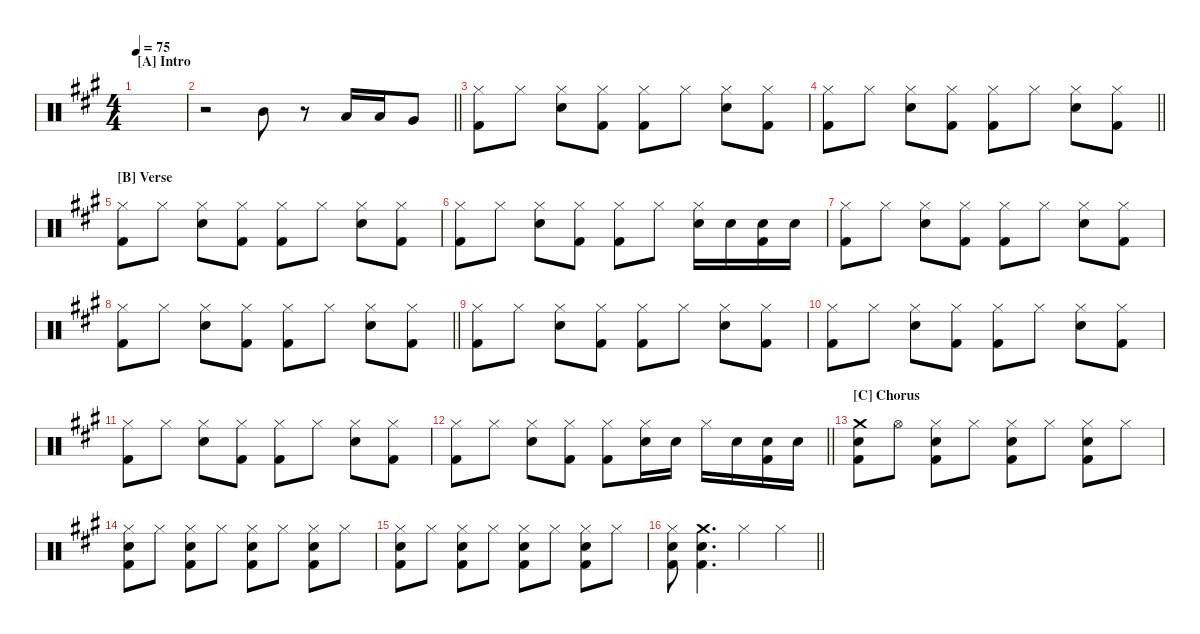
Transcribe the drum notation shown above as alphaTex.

\hideDynamics
\bracketExtendMode nobrackets
\singleTrackTrackNamePolicy hidden
\multiTrackTrackNamePolicy hidden
\otherSystemsTrackNameOrientation horizontal
\track ("Drumkit" "Drums") {instrument percussion}
\staff {score}
\articulation defaults
\ts (4 4)
\beaming (8 2 2 2 2)
\section ("A" "Intro")
\tempo 75
\clef neutral
\scale
0.472222
\ks a
|
\scale
0.263889
\barLineRight lightlight
r.2{beam Down} "Mid Tom (hit)"{acc forcenatural}.8{beam Down} r.8{beam Down} "Low Tom (hit)"{acc forcenatural}.16{beam Up} "Low Tom (hit)"{acc forcenatural}.16{beam Up} "Very Low Tom (hit)"{acc forcenatural}.8{beam Up} |
\scale
0.263889 ("Hi-Hat (closed)"{acc forcenatural} "Kick (hit) 2"{acc forcenatural}).8{dy mf beam Down} "Hi-Hat (closed)"{acc forcenatural}.8{beam Down} ("Hi-Hat (closed)"{acc forcenatural} "Snare (hit) 2"{acc forcenatural}).8{beam Down} ("Hi-Hat (closed)"{acc forcenatural} "Kick (hit) 2"{acc forcenatural}).8{beam Down} ("Hi-Hat (closed)"{acc forcenatural} "Kick (hit) 2"{acc forcenatural}).8{beam Down} "Hi-Hat (closed)"{acc forcenatural}.8{beam Down} ("Hi-Hat (closed)"{acc forcenatural} "Snare (hit) 2"{acc forcenatural}).8{beam Down} ("Hi-Hat (closed)"{acc forcenatural} "Kick (hit) 2"{acc forcenatural}).8{beam Down} |
\scale
0.311475
\barLineRight lightlight
("Hi-Hat (closed)"{acc forcenatural} "Kick (hit) 2"{acc forcenatural}).8{beam Down} "Hi-Hat (closed)"{acc forcenatural}.8{beam Down} ("Hi-Hat (closed)"{acc forcenatural} "Snare (hit) 2"{acc forcenatural}).8{beam Down} ("Hi-Hat (closed)"{acc forcenatural} "Kick (hit) 2"{acc forcenatural}).8{beam Down} ("Hi-Hat (closed)"{acc forcenatural} "Kick (hit) 2"{acc forcenatural}).8{beam Down} "Hi-Hat (closed)"{acc forcenatural}.8{beam Down} ("Hi-Hat (closed)"{acc forcenatural} "Snare (hit) 2"{acc forcenatural}).8{beam Down} ("Hi-Hat (closed)"{acc forcenatural} "Kick (hit) 2"{acc forcenatural}).8{beam Down} |
\section ("B" "Verse")
\scale
0.377049 ("Hi-Hat (closed)"{acc forcenatural} "Kick (hit) 2"{acc forcenatural}).8{beam Down} "Hi-Hat (closed)"{acc forcenatural}.8{beam Down} ("Hi-Hat (closed)"{acc forcenatural} "Snare (hit) 2"{acc forcenatural}).8{beam Down} ("Hi-Hat (closed)"{acc forcenatural} "Kick (hit) 2"{acc forcenatural}).8{beam Down} ("Hi-Hat (closed)"{acc forcenatural} "Kick (hit) 2"{acc forcenatural}).8{beam Down} "Hi-Hat (closed)"{acc forcenatural}.8{beam Down} ("Hi-Hat (closed)"{acc forcenatural} "Snare (hit) 2"{acc forcenatural}).8{beam Down} ("Hi-Hat (closed)"{acc forcenatural} "Kick (hit) 2"{acc forcenatural}).8{beam Down} |
\scale
0.311475 ("Kick (hit) 2"{acc forcenatural} "Hi-Hat (closed)"{acc forcenatural}).8{beam Down} "Hi-Hat (closed)"{acc forcenatural}.8{beam Down} ("Snare (hit) 2"{acc forcenatural} "Hi-Hat (closed)"{acc forcenatural}).8{beam Down} ("Kick (hit) 2"{acc forcenatural} "Hi-Hat (closed)"{acc forcenatural}).8{beam Down} ("Kick (hit) 2"{acc forcenatural} "Hi-Hat (closed)"{acc forcenatural}).8{beam Down} "Hi-Hat (closed)"{acc forcenatural}.8{beam Down} ("Snare (hit) 2"{acc forcenatural} "Hi-Hat (closed)"{acc forcenatural}).16{beam Down} "Snare (hit) 2"{acc forcenatural}.16{beam Down} ("Snare (hit) 2"{acc forcenatural} "Kick (hit) 2"{acc forcenatural}).16{beam Down} "Snare (hit) 2"{acc forcenatural}.16{beam Down} |
\scale
0.333333 ("Hi-Hat (closed)"{acc forcenatural} "Kick (hit) 2"{acc forcenatural}).8{beam Down} "Hi-Hat (closed)"{acc forcenatural}.8{beam Down} ("Hi-Hat (closed)"{acc forcenatural} "Snare (hit) 2"{acc forcenatural}).8{beam Down} ("Hi-Hat (closed)"{acc forcenatural} "Kick (hit) 2"{acc forcenatural}).8{beam Down} ("Hi-Hat (closed)"{acc forcenatural} "Kick (hit) 2"{acc forcenatural}).8{beam Down} "Hi-Hat (closed)"{acc forcenatural}.8{beam Down} ("Hi-Hat (closed)"{acc forcenatural} "Snare (hit) 2"{acc forcenatural}).8{beam Down} ("Hi-Hat (closed)"{acc forcenatural} "Kick (hit) 2"{acc forcenatural}).8{beam Down} |
\scale
0.333333
\barLineRight lightlight
("Hi-Hat (closed)"{acc forcenatural} "Kick (hit) 2"{acc forcenatural}).8{beam Down} "Hi-Hat (closed)"{acc forcenatural}.8{beam Down} ("Hi-Hat (closed)"{acc forcenatural} "Snare (hit) 2"{acc forcenatural}).8{beam Down} ("Hi-Hat (closed)"{acc forcenatural} "Kick (hit) 2"{acc forcenatural}).8{beam Down} ("Hi-Hat (closed)"{acc forcenatural} "Kick (hit) 2"{acc forcenatural}).8{beam Down} "Hi-Hat (closed)"{acc forcenatural}.8{beam Down} ("Hi-Hat (closed)"{acc forcenatural} "Snare (hit) 2"{acc forcenatural}).8{beam Down} ("Hi-Hat (closed)"{acc forcenatural} "Kick (hit) 2"{acc forcenatural}).8{beam Down} |
\scale
0.333333 ("Hi-Hat (closed)"{acc forcenatural} "Kick (hit) 2"{acc forcenatural}).8{beam Down} "Hi-Hat (closed)"{acc forcenatural}.8{beam Down} ("Hi-Hat (closed)"{acc forcenatural} "Snare (hit) 2"{acc forcenatural}).8{beam Down} ("Hi-Hat (closed)"{acc forcenatural} "Kick (hit) 2"{acc forcenatural}).8{beam Down} ("Hi-Hat (closed)"{acc forcenatural} "Kick (hit) 2"{acc forcenatural}).8{beam Down} "Hi-Hat (closed)"{acc forcenatural}.8{beam Down} ("Hi-Hat (closed)"{acc forcenatural} "Snare (hit) 2"{acc forcenatural}).8{beam Down} ("Hi-Hat (closed)"{acc forcenatural} "Kick (hit) 2"{acc forcenatural}).8{beam Down} |
\scale
0.333333 ("Hi-Hat (closed)"{acc forcenatural} "Kick (hit) 2"{acc forcenatural}).8{beam Down} "Hi-Hat (closed)"{acc forcenatural}.8{beam Down} ("Hi-Hat (closed)"{acc forcenatural} "Snare (hit) 2"{acc forcenatural}).8{beam Down} ("Hi-Hat (closed)"{acc forcenatural} "Kick (hit) 2"{acc forcenatural}).8{beam Down} ("Hi-Hat (closed)"{acc forcenatural} "Kick (hit) 2"{acc forcenatural}).8{beam Down} "Hi-Hat (closed)"{acc forcenatural}.8{beam Down} ("Hi-Hat (closed)"{acc forcenatural} "Snare (hit) 2"{acc forcenatural}).8{beam Down} ("Hi-Hat (closed)"{acc forcenatural} "Kick (hit) 2"{acc forcenatural}).8{beam Down} |
\scale
0.333333 ("Hi-Hat (closed)"{acc forcenatural} "Kick (hit) 2"{acc forcenatural}).8{beam Down} "Hi-Hat (closed)"{acc forcenatural}.8{beam Down} ("Hi-Hat (closed)"{acc forcenatural} "Snare (hit) 2"{acc forcenatural}).8{beam Down} ("Hi-Hat (closed)"{acc forcenatural} "Kick (hit) 2"{acc forcenatural}).8{beam Down} ("Hi-Hat (closed)"{acc forcenatural} "Kick (hit) 2"{acc forcenatural}).8{beam Down} "Hi-Hat (closed)"{acc forcenatural}.8{beam Down} ("Hi-Hat (closed)"{acc forcenatural} "Snare (hit) 2"{acc forcenatural}).8{beam Down} ("Hi-Hat (closed)"{acc forcenatural} "Kick (hit) 2"{acc forcenatural}).8{beam Down} |
\scale
0.333333
\barLineRight lightlight
("Kick (hit) 2"{acc forcenatural} "Hi-Hat (closed)"{acc forcenatural}).8{beam Down} "Hi-Hat (closed)"{acc forcenatural}.8{beam Down} ("Snare (hit) 2"{acc forcenatural} "Hi-Hat (closed)"{acc forcenatural}).8{beam Down} ("Kick (hit) 2"{acc forcenatural} "Hi-Hat (closed)"{acc forcenatural}).8{beam Down} ("Kick (hit) 2"{acc forcenatural} "Hi-Hat (closed)"{acc forcenatural}).8{beam Down} ("Snare (hit) 2"{acc forcenatural} "Hi-Hat (closed)"{acc forcenatural}).16{beam Down} "Snare (hit) 2"{acc forcenatural}.16{beam Down} "Hi-Hat (closed)"{acc forcenatural}.16{beam Down} "Snare (hit) 2"{acc forcenatural}.16{beam Down} ("Snare (hit) 2"{acc forcenatural} "Kick (hit) 2"{acc forcenatural}).16{beam Down} "Snare (hit) 2"{acc forcenatural}.16{beam Down} |
\section ("C" "Chorus")
\scale
0.333333 ("Snare (hit) 2"{acc forcenatural} "Crash medium (hit)"{acc forcenatural} "Kick (hit) 2"{acc forcenatural}).8{beam Down} "Hi-Hat (open)"{acc forcenatural}.8{beam Down} ("Kick (hit) 2"{acc forcenatural} "Hi-Hat (closed)"{acc forcenatural} "Snare (hit) 2"{acc forcenatural}).8{beam Down} "Hi-Hat (closed)"{acc forcenatural}.8{beam Down} ("Kick (hit) 2"{acc forcenatural} "Snare (hit) 2"{acc forcenatural} "Hi-Hat (closed)"{acc forcenatural}).8{beam Down} "Hi-Hat (closed)"{acc forcenatural}.8{beam Down} ("Kick (hit) 2"{acc forcenatural} "Snare (hit) 2"{acc forcenatural} "Hi-Hat (closed)"{acc forcenatural}).8{beam Down} "Hi-Hat (closed)"{acc forcenatural}.8{beam Down} |
\scale
0.333333 ("Hi-Hat (closed)"{acc forcenatural} "Snare (hit) 2"{acc forcenatural} "Kick (hit) 2"{acc forcenatural}).8{beam Down} "Hi-Hat (closed)"{acc forcenatural}.8{beam Down} ("Kick (hit) 2"{acc forcenatural} "Hi-Hat (closed)"{acc forcenatural} "Snare (hit) 2"{acc forcenatural}).8{beam Down} "Hi-Hat (closed)"{acc forcenatural}.8{beam Down} ("Kick (hit) 2"{acc forcenatural} "Snare (hit) 2"{acc forcenatural} "Hi-Hat (closed)"{acc forcenatural}).8{beam Down} "Hi-Hat (closed)"{acc forcenatural}.8{beam Down} ("Kick (hit) 2"{acc forcenatural} "Snare (hit) 2"{acc forcenatural} "Hi-Hat (closed)"{acc forcenatural}).8{beam Down} "Hi-Hat (closed)"{acc forcenatural}.8{beam Down} |
\scale
0.333333 ("Hi-Hat (closed)"{acc forcenatural} "Snare (hit) 2"{acc forcenatural} "Kick (hit) 2"{acc forcenatural}).8{beam Down} "Hi-Hat (closed)"{acc forcenatural}.8{beam Down} ("Kick (hit) 2"{acc forcenatural} "Hi-Hat (closed)"{acc forcenatural} "Snare (hit) 2"{acc forcenatural}).8{beam Down} "Hi-Hat (closed)"{acc forcenatural}.8{beam Down} ("Kick (hit) 2"{acc forcenatural} "Snare (hit) 2"{acc forcenatural} "Hi-Hat (closed)"{acc forcenatural}).8{beam Down} "Hi-Hat (closed)"{acc forcenatural}.8{beam Down} ("Kick (hit) 2"{acc forcenatural} "Snare (hit) 2"{acc forcenatural} "Hi-Hat (closed)"{acc forcenatural}).8{beam Down} "Hi-Hat (closed)"{acc forcenatural}.8{beam Down} |
\scale
0.333333
\barLineRight lightlight
("Hi-Hat (closed)"{acc forcenatural} "Snare (hit) 2"{acc forcenatural} "Kick (hit) 2"{acc forcenatural}).8{beam Down} ("Snare (hit) 2"{acc forcenatural} "Kick (hit) 2"{acc forcenatural} "Crash medium (hit)"{acc forcenatural}).4{d beam Down} "Hi-Hat (closed)"{acc forcenatural}.4{beam Down} "Hi-Hat (closed)"{acc forcenatural}.4{beam Down}
